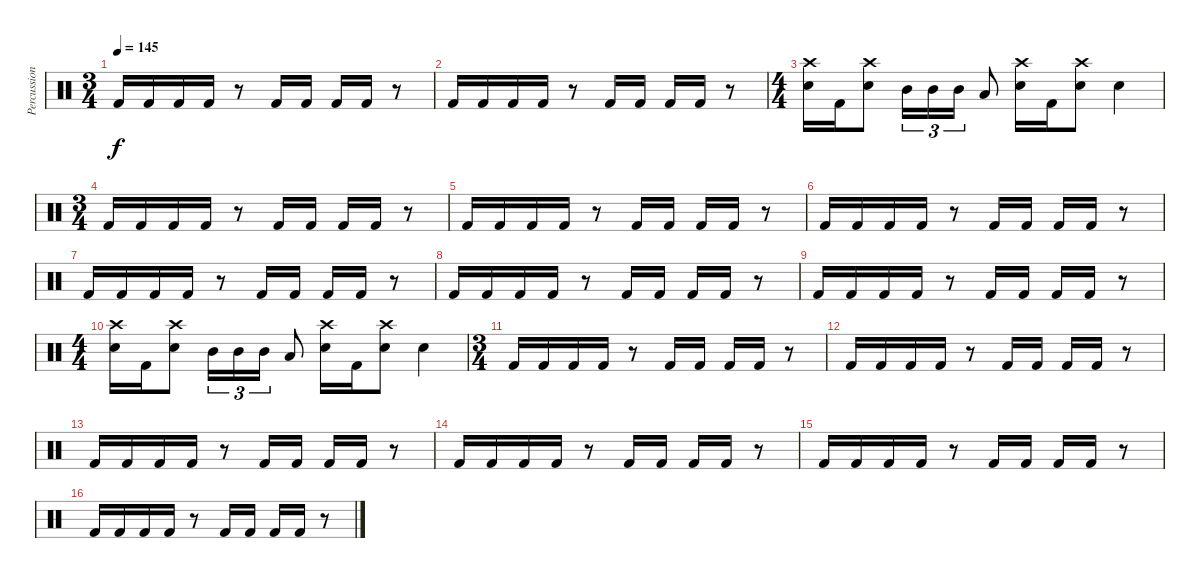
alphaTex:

\track ("Percussion" "Percussion") {instrument percussion}
\staff {score}
\articulation defaults
\ts (3 4)
\tempo 145
\clef neutral
\ks c "Kick (hit) 2".16{dy f} "Kick (hit) 2".16 "Kick (hit) 2".16 "Kick (hit) 2".16
r.8 "Kick (hit) 2".16 "Kick (hit) 2".16 "Kick (hit) 2".16 "Kick (hit) 2".16 r.8 |
"Kick (hit) 2".16 "Kick (hit) 2".16 "Kick (hit) 2".16 "Kick (hit) 2".16 r.8 "Kick (hit) 2".16 "Kick (hit) 2".16 "Kick (hit) 2".16 "Kick (hit) 2".16 r.8 |
\ts (4 4)
("Crash high (hit)" "Electric Snare (hit)").16 "Kick (hit) 2".16 ("Crash high (hit)" "Electric Snare (hit)").8 "Mid Tom (hit)".16{tu (3 2)} "Mid Tom (hit)".16{tu (3 2)} "Mid Tom (hit)".16{tu (3 2)} "Low Tom (hit)".8 ("Crash high (hit)" "Electric Snare (hit)").16 "Kick (hit) 2".16 ("Crash high (hit)" "Electric Snare (hit)").8 "Electric Snare (hit)".4 |
\ts (3 4)
"Kick (hit) 2".16 "Kick (hit) 2".16 "Kick (hit) 2".16 "Kick (hit) 2".16 r.8 "Kick (hit) 2".16 "Kick (hit) 2".16 "Kick (hit) 2".16 "Kick (hit) 2".16 r.8 |
"Kick (hit) 2".16 "Kick (hit) 2".16 "Kick (hit) 2".16 "Kick (hit) 2".16 r.8 "Kick (hit) 2".16 "Kick (hit) 2".16 "Kick (hit) 2".16 "Kick (hit) 2".16 r.8 |
"Kick (hit) 2".16 "Kick (hit) 2".16 "Kick (hit) 2".16 "Kick (hit) 2".16 r.8 "Kick (hit) 2".16 "Kick (hit) 2".16 "Kick (hit) 2".16 "Kick (hit) 2".16 r.8 |
"Kick (hit) 2".16 "Kick (hit) 2".16 "Kick (hit) 2".16 "Kick (hit) 2".16 r.8 "Kick (hit) 2".16 "Kick (hit) 2".16 "Kick (hit) 2".16 "Kick (hit) 2".16 r.8 |
"Kick (hit) 2".16 "Kick (hit) 2".16 "Kick (hit) 2".16 "Kick (hit) 2".16 r.8 "Kick (hit) 2".16 "Kick (hit) 2".16 "Kick (hit) 2".16 "Kick (hit) 2".16 r.8 |
"Kick (hit) 2".16 "Kick (hit) 2".16 "Kick (hit) 2".16 "Kick (hit) 2".16 r.8 "Kick (hit) 2".16 "Kick (hit) 2".16 "Kick (hit) 2".16 "Kick (hit) 2".16 r.8 |
\ts (4 4)
("Crash high (hit)" "Electric Snare (hit)").16 "Kick (hit) 2".16 ("Crash high (hit)" "Electric Snare (hit)").8 "Mid Tom (hit)".16{tu (3 2)} "Mid Tom (hit)".16{tu (3 2)} "Mid Tom (hit)".16{tu (3 2)} "Low Tom (hit)".8 ("Crash high (hit)" "Electric Snare (hit)").16 "Kick (hit) 2".16 ("Crash high (hit)" "Electric Snare (hit)").8 "Electric Snare (hit)".4 |
\ts (3 4)
"Kick (hit) 2".16 "Kick (hit) 2".16 "Kick (hit) 2".16 "Kick (hit) 2".16 r.8 "Kick (hit) 2".16 "Kick (hit) 2".16 "Kick (hit) 2".16 "Kick (hit) 2".16 r.8 |
"Kick (hit) 2".16 "Kick (hit) 2".16 "Kick (hit) 2".16 "Kick (hit) 2".16 r.8 "Kick (hit) 2".16 "Kick (hit) 2".16 "Kick (hit) 2".16 "Kick (hit) 2".16 r.8 |
"Kick (hit) 2".16 "Kick (hit) 2".16 "Kick (hit) 2".16 "Kick (hit) 2".16 r.8 "Kick (hit) 2".16 "Kick (hit) 2".16 "Kick (hit) 2".16 "Kick (hit) 2".16 r.8 |
"Kick (hit) 2".16 "Kick (hit) 2".16 "Kick (hit) 2".16 "Kick (hit) 2".16 r.8 "Kick (hit) 2".16 "Kick (hit) 2".16 "Kick (hit) 2".16 "Kick (hit) 2".16 r.8 |
"Kick (hit) 2".16 "Kick (hit) 2".16 "Kick (hit) 2".16 "Kick (hit) 2".16 r.8 "Kick (hit) 2".16 "Kick (hit) 2".16 "Kick (hit) 2".16 "Kick (hit) 2".16 r.8 |
"Kick (hit) 2".16 "Kick (hit) 2".16 "Kick (hit) 2".16 "Kick (hit) 2".16 r.8 "Kick (hit) 2".16 "Kick (hit) 2".16 "Kick (hit) 2".16 "Kick (hit) 2".16 r.8
